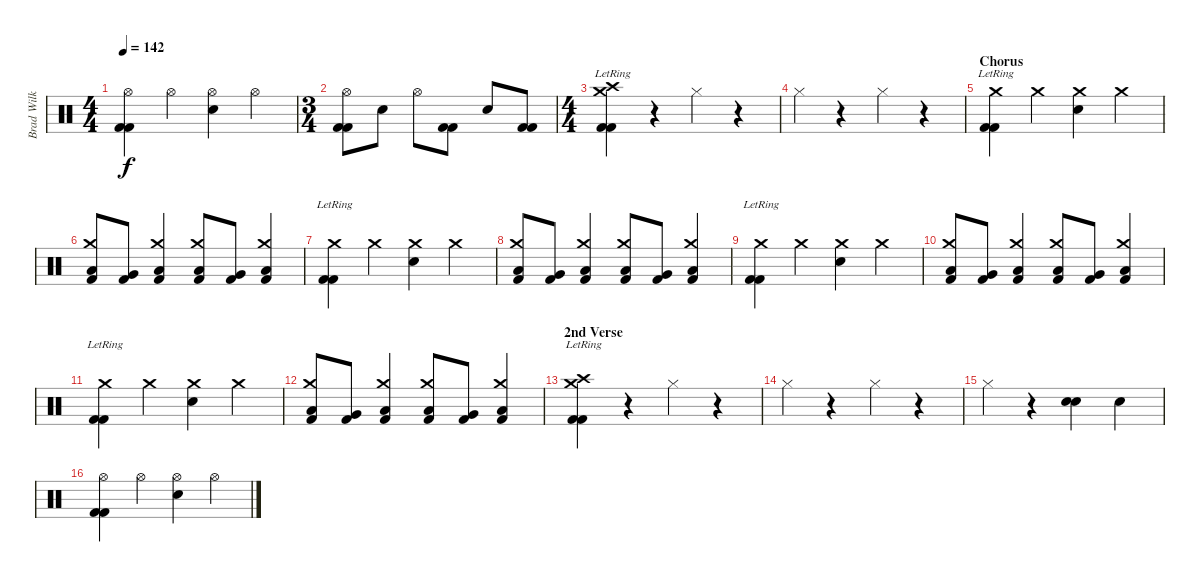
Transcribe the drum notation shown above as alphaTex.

\track ("Brad Wilk" "Brad Wilk") {instrument percussion}
\staff {score}
\articulation defaults
\ts (4 4)
\tempo 142
\clef neutral
\ks c
("Hi-Hat (open)" "Kick (hit) 2" "Kick (hit) 2").4{dy f} "Hi-Hat (open)".4 ("Hi-Hat (open)" "Electric Snare (hit)").4 "Hi-Hat (open)".4 |
\ts (3 4)
("Hi-Hat (open)" "Kick (hit) 2" "Kick (hit) 2").8 "Electric Snare (hit)".8 "Hi-Hat (open)".8 ("Kick (hit) 2" "Kick (hit) 2").8 "Electric Snare (hit)".8 ("Kick (hit) 2" "Kick (hit) 2").8 |
\ts (4 4)
("Crash medium (hit)"{lr} "Crash high (hit)"{lr} "Kick (hit) 2" "Kick (hit) 2").4 r.4 "Hi-Hat (closed)".4 r.4 |
"Hi-Hat (closed)".4 r.4 "Hi-Hat (closed)".4 r.4 |
\section ("" "Chorus")
("Crash medium (hit)"{lr} "Kick (hit) 2" "Kick (hit) 2").4 "Crash medium (hit)".4 ("Crash medium (hit)" "Electric Snare (hit)").4 "Crash medium (hit)".4 |
("Crash medium (hit)" "Low Tom (hit)" "Kick (hit) 2").8 ("Very Low Tom (hit)" "Kick (hit) 2").8 ("Crash medium (hit)" "Low Floor Tom (hit)" "Kick (hit) 2").4 ("Crash medium (hit)" "Low Tom (hit)" "Kick (hit) 2").8 ("Very Low Tom (hit)" "Kick (hit) 2").8 ("Crash medium (hit)" "Low Floor Tom (hit)" "Kick (hit) 2").4 |
("Crash medium (hit)"{lr} "Kick (hit) 2" "Kick (hit) 2").4 "Crash medium (hit)".4 ("Crash medium (hit)" "Electric Snare (hit)").4 "Crash medium (hit)".4 |
("Crash medium (hit)" "Low Tom (hit)" "Kick (hit) 2").8 ("Very Low Tom (hit)" "Kick (hit) 2").8 ("Crash medium (hit)" "Low Floor Tom (hit)" "Kick (hit) 2").4 ("Crash medium (hit)" "Low Tom (hit)" "Kick (hit) 2").8 ("Very Low Tom (hit)" "Kick (hit) 2").8 ("Crash medium (hit)" "Low Floor Tom (hit)" "Kick (hit) 2").4 |
("Crash medium (hit)"{lr} "Kick (hit) 2" "Kick (hit) 2").4 "Crash medium (hit)".4 ("Crash medium (hit)" "Electric Snare (hit)").4 "Crash medium (hit)".4 |
("Crash medium (hit)" "Low Tom (hit)" "Kick (hit) 2").8 ("Very Low Tom (hit)" "Kick (hit) 2").8 ("Crash medium (hit)" "Low Floor Tom (hit)" "Kick (hit) 2").4 ("Crash medium (hit)" "Low Tom (hit)" "Kick (hit) 2").8 ("Very Low Tom (hit)" "Kick (hit) 2").8 ("Crash medium (hit)" "Low Floor Tom (hit)" "Kick (hit) 2").4 |
("Crash medium (hit)"{lr} "Kick (hit) 2" "Kick (hit) 2").4 "Crash medium (hit)".4 ("Crash medium (hit)" "Electric Snare (hit)").4 "Crash medium (hit)".4 |
("Crash medium (hit)" "Low Tom (hit)" "Kick (hit) 2").8 ("Very Low Tom (hit)" "Kick (hit) 2").8 ("Crash medium (hit)" "Low Floor Tom (hit)" "Kick (hit) 2").4 ("Crash medium (hit)" "Low Tom (hit)" "Kick (hit) 2").8 ("Very Low Tom (hit)" "Kick (hit) 2").8 ("Crash medium (hit)" "Low Floor Tom (hit)" "Kick (hit) 2").4 |
\section ("" "2nd Verse")
("Crash medium (hit)"{lr} "Crash high (hit)"{lr} "Kick (hit) 2"{lr} "Kick (hit) 2"{lr}).4 r.4 "Hi-Hat (closed)".4 r.4 |
"Hi-Hat (closed)".4 r.4 "Hi-Hat (closed)".4 r.4 |
"Hi-Hat (closed)".4 r.4 ("Electric Snare (hit)" "Electric Snare (hit)").4{bd 120} "Electric Snare (hit)".4 |
("Hi-Hat (open)" "Kick (hit) 2" "Kick (hit) 2").4 "Hi-Hat (open)".4 ("Hi-Hat (open)" "Electric Snare (hit)").4 "Hi-Hat (open)".4
